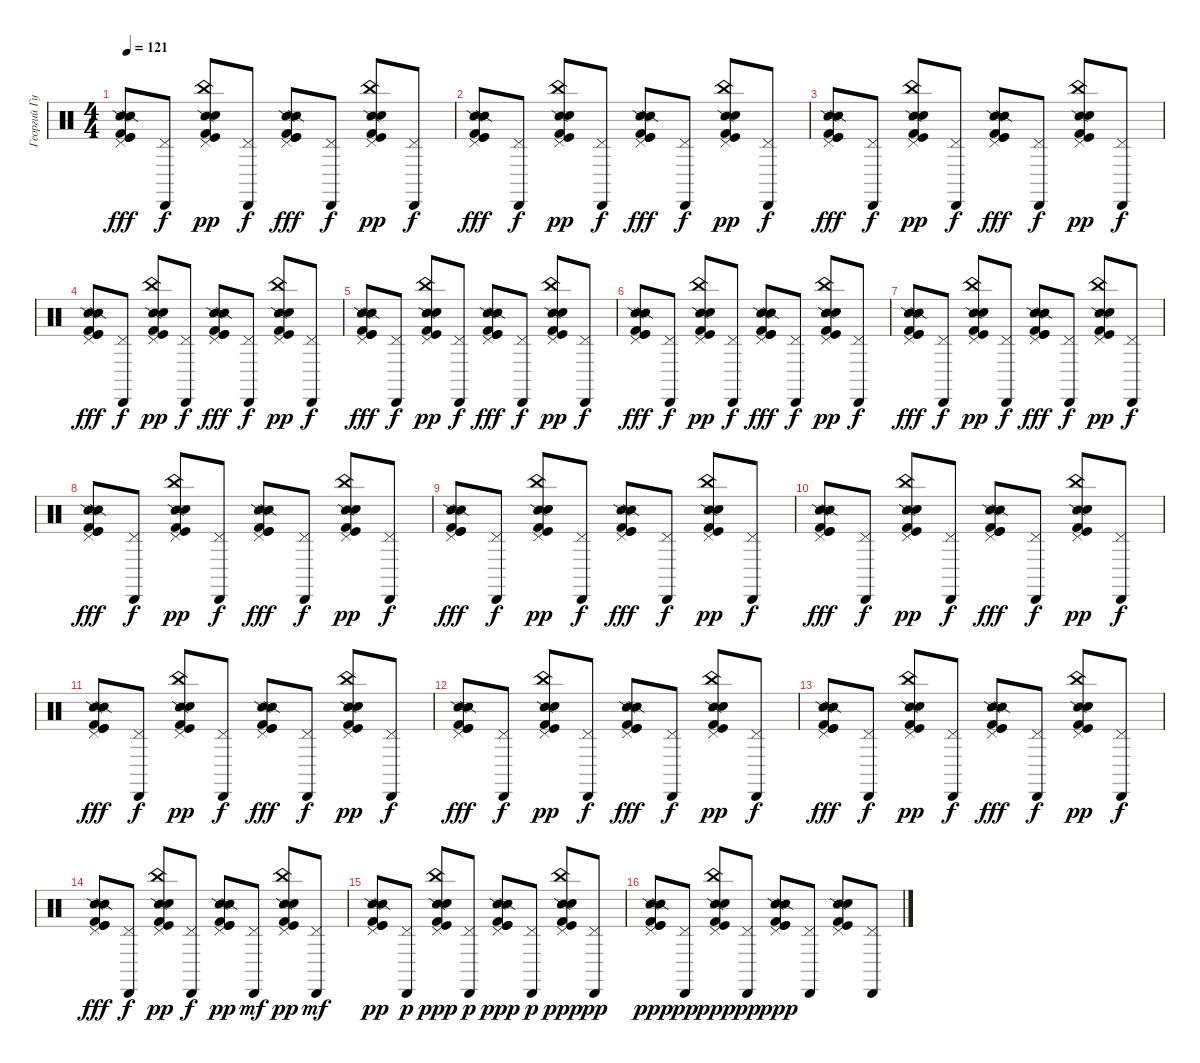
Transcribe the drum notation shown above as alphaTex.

\track ("Георгий Гурьянов" "Георгий Гу") {instrument percussion}
\staff {score}
\articulation defaults
\ts (4 4)
\tempo 121
\clef neutral
\ks c
("Kick (hit)" "Kick (hit) 2" "Pedal Hi-Hat (hit)" "Snare (side stick) 2" "Snare (side stick) 2" "Kick (hit)").8{dy fff} ("Cabasa (hit)" "Pedal Hi-Hat (hit)").8{dy f} ("Kick (hit)" "Kick (hit) 2" "Pedal Hi-Hat (hit)" "Snare (side stick) 2" "Hand Clap (hit)" "China (hit)").8{dy pp} ("Cabasa (hit)" "Pedal Hi-Hat (hit)").8{dy f} ("Kick (hit)" "Kick (hit) 2" "Pedal Hi-Hat (hit)" "Snare (side stick) 2" "Snare (side stick) 2" "Kick (hit)").8{dy fff} ("Cabasa (hit)" "Pedal Hi-Hat (hit)").8{dy f} ("Kick (hit)" "Kick (hit) 2" "Pedal Hi-Hat (hit)" "Snare (side stick) 2" "Hand Clap (hit)" "China (hit)").8{dy pp} ("Cabasa (hit)" "Pedal Hi-Hat (hit)").8{dy f} |
("Kick (hit)" "Kick (hit) 2" "Pedal Hi-Hat (hit)" "Snare (side stick) 2" "Snare (side stick) 2" "Kick (hit)").8{dy fff} ("Cabasa (hit)" "Pedal Hi-Hat (hit)").8{dy f} ("Kick (hit)" "Kick (hit) 2" "Pedal Hi-Hat (hit)" "Snare (side stick) 2" "Hand Clap (hit)" "China (hit)").8{dy pp} ("Cabasa (hit)" "Pedal Hi-Hat (hit)").8{dy f} ("Kick (hit)" "Kick (hit) 2" "Pedal Hi-Hat (hit)" "Snare (side stick) 2" "Snare (side stick) 2" "Kick (hit)").8{dy fff} ("Cabasa (hit)" "Pedal Hi-Hat (hit)").8{dy f} ("Kick (hit)" "Kick (hit) 2" "Pedal Hi-Hat (hit)" "Snare (side stick) 2" "Hand Clap (hit)" "China (hit)").8{dy pp} ("Cabasa (hit)" "Pedal Hi-Hat (hit)").8{dy f} |
("Kick (hit)" "Kick (hit) 2" "Pedal Hi-Hat (hit)" "Snare (side stick) 2" "Snare (side stick) 2" "Kick (hit)").8{dy fff} ("Cabasa (hit)" "Pedal Hi-Hat (hit)").8{dy f} ("Kick (hit)" "Kick (hit) 2" "Pedal Hi-Hat (hit)" "Snare (side stick) 2" "Hand Clap (hit)" "China (hit)").8{dy pp} ("Cabasa (hit)" "Pedal Hi-Hat (hit)").8{dy f} ("Kick (hit)" "Kick (hit) 2" "Pedal Hi-Hat (hit)" "Snare (side stick) 2" "Snare (side stick) 2" "Kick (hit)").8{dy fff} ("Cabasa (hit)" "Pedal Hi-Hat (hit)").8{dy f} ("Kick (hit)" "Kick (hit) 2" "Pedal Hi-Hat (hit)" "Snare (side stick) 2" "Hand Clap (hit)" "China (hit)").8{dy pp} ("Cabasa (hit)" "Pedal Hi-Hat (hit)").8{dy f} |
("Kick (hit)" "Kick (hit) 2" "Pedal Hi-Hat (hit)" "Snare (side stick) 2" "Snare (side stick) 2" "Kick (hit)").8{dy fff} ("Cabasa (hit)" "Pedal Hi-Hat (hit)").8{dy f} ("Kick (hit)" "Kick (hit) 2" "Pedal Hi-Hat (hit)" "Snare (side stick) 2" "Hand Clap (hit)" "China (hit)").8{dy pp} ("Cabasa (hit)" "Pedal Hi-Hat (hit)").8{dy f} ("Kick (hit)" "Kick (hit) 2" "Pedal Hi-Hat (hit)" "Snare (side stick) 2" "Snare (side stick) 2" "Kick (hit)").8{dy fff} ("Cabasa (hit)" "Pedal Hi-Hat (hit)").8{dy f} ("Kick (hit)" "Kick (hit) 2" "Pedal Hi-Hat (hit)" "Snare (side stick) 2" "Hand Clap (hit)" "China (hit)").8{dy pp} ("Cabasa (hit)" "Pedal Hi-Hat (hit)").8{dy f} |
("Kick (hit)" "Kick (hit) 2" "Pedal Hi-Hat (hit)" "Snare (side stick) 2" "Snare (side stick) 2" "Kick (hit)").8{dy fff} ("Cabasa (hit)" "Pedal Hi-Hat (hit)").8{dy f} ("Kick (hit)" "Kick (hit) 2" "Pedal Hi-Hat (hit)" "Snare (side stick) 2" "Hand Clap (hit)" "China (hit)").8{dy pp} ("Cabasa (hit)" "Pedal Hi-Hat (hit)").8{dy f} ("Kick (hit)" "Kick (hit) 2" "Pedal Hi-Hat (hit)" "Snare (side stick) 2" "Snare (side stick) 2" "Kick (hit)").8{dy fff} ("Cabasa (hit)" "Pedal Hi-Hat (hit)").8{dy f} ("Kick (hit)" "Kick (hit) 2" "Pedal Hi-Hat (hit)" "Snare (side stick) 2" "Hand Clap (hit)" "China (hit)").8{dy pp} ("Cabasa (hit)" "Pedal Hi-Hat (hit)").8{dy f} |
("Kick (hit)" "Kick (hit) 2" "Pedal Hi-Hat (hit)" "Snare (side stick) 2" "Snare (side stick) 2" "Kick (hit)").8{dy fff} ("Cabasa (hit)" "Pedal Hi-Hat (hit)").8{dy f} ("Kick (hit)" "Kick (hit) 2" "Pedal Hi-Hat (hit)" "Snare (side stick) 2" "Hand Clap (hit)" "China (hit)").8{dy pp} ("Cabasa (hit)" "Pedal Hi-Hat (hit)").8{dy f} ("Kick (hit)" "Kick (hit) 2" "Pedal Hi-Hat (hit)" "Snare (side stick) 2" "Snare (side stick) 2" "Kick (hit)").8{dy fff} ("Cabasa (hit)" "Pedal Hi-Hat (hit)").8{dy f} ("Kick (hit)" "Kick (hit) 2" "Pedal Hi-Hat (hit)" "Snare (side stick) 2" "Hand Clap (hit)" "China (hit)").8{dy pp} ("Cabasa (hit)" "Pedal Hi-Hat (hit)").8{dy f} |
("Kick (hit)" "Kick (hit) 2" "Pedal Hi-Hat (hit)" "Snare (side stick) 2" "Snare (side stick) 2" "Kick (hit)").8{dy fff} ("Cabasa (hit)" "Pedal Hi-Hat (hit)").8{dy f} ("Kick (hit)" "Kick (hit) 2" "Pedal Hi-Hat (hit)" "Snare (side stick) 2" "Hand Clap (hit)" "China (hit)").8{dy pp} ("Cabasa (hit)" "Pedal Hi-Hat (hit)").8{dy f} ("Kick (hit)" "Kick (hit) 2" "Pedal Hi-Hat (hit)" "Snare (side stick) 2" "Snare (side stick) 2" "Kick (hit)").8{dy fff} ("Cabasa (hit)" "Pedal Hi-Hat (hit)").8{dy f} ("Kick (hit)" "Kick (hit) 2" "Pedal Hi-Hat (hit)" "Snare (side stick) 2" "Hand Clap (hit)" "China (hit)").8{dy pp} ("Cabasa (hit)" "Pedal Hi-Hat (hit)").8{dy f} |
("Kick (hit)" "Kick (hit) 2" "Pedal Hi-Hat (hit)" "Snare (side stick) 2" "Snare (side stick) 2" "Kick (hit)").8{dy fff} ("Cabasa (hit)" "Pedal Hi-Hat (hit)").8{dy f} ("Kick (hit)" "Kick (hit) 2" "Pedal Hi-Hat (hit)" "Snare (side stick) 2" "Hand Clap (hit)" "China (hit)").8{dy pp} ("Cabasa (hit)" "Pedal Hi-Hat (hit)").8{dy f} ("Kick (hit)" "Kick (hit) 2" "Pedal Hi-Hat (hit)" "Snare (side stick) 2" "Snare (side stick) 2" "Kick (hit)").8{dy fff} ("Cabasa (hit)" "Pedal Hi-Hat (hit)").8{dy f} ("Kick (hit)" "Kick (hit) 2" "Pedal Hi-Hat (hit)" "Snare (side stick) 2" "Hand Clap (hit)" "China (hit)").8{dy pp} ("Cabasa (hit)" "Pedal Hi-Hat (hit)").8{dy f} |
("Kick (hit)" "Kick (hit) 2" "Pedal Hi-Hat (hit)" "Snare (side stick) 2" "Snare (side stick) 2" "Kick (hit)").8{dy fff} ("Cabasa (hit)" "Pedal Hi-Hat (hit)").8{dy f} ("Kick (hit)" "Kick (hit) 2" "Pedal Hi-Hat (hit)" "Snare (side stick) 2" "Hand Clap (hit)" "China (hit)").8{dy pp} ("Cabasa (hit)" "Pedal Hi-Hat (hit)").8{dy f} ("Kick (hit)" "Kick (hit) 2" "Pedal Hi-Hat (hit)" "Snare (side stick) 2" "Snare (side stick) 2" "Kick (hit)").8{dy fff} ("Cabasa (hit)" "Pedal Hi-Hat (hit)").8{dy f} ("Kick (hit)" "Kick (hit) 2" "Pedal Hi-Hat (hit)" "Snare (side stick) 2" "Hand Clap (hit)" "China (hit)").8{dy pp} ("Cabasa (hit)" "Pedal Hi-Hat (hit)").8{dy f} |
("Kick (hit)" "Kick (hit) 2" "Pedal Hi-Hat (hit)" "Snare (side stick) 2" "Snare (side stick) 2" "Kick (hit)").8{dy fff} ("Cabasa (hit)" "Pedal Hi-Hat (hit)").8{dy f} ("Kick (hit)" "Kick (hit) 2" "Pedal Hi-Hat (hit)" "Snare (side stick) 2" "Hand Clap (hit)" "China (hit)").8{dy pp} ("Cabasa (hit)" "Pedal Hi-Hat (hit)").8{dy f} ("Kick (hit)" "Kick (hit) 2" "Pedal Hi-Hat (hit)" "Snare (side stick) 2" "Snare (side stick) 2" "Kick (hit)").8{dy fff} ("Cabasa (hit)" "Pedal Hi-Hat (hit)").8{dy f} ("Kick (hit)" "Kick (hit) 2" "Pedal Hi-Hat (hit)" "Snare (side stick) 2" "Hand Clap (hit)" "China (hit)").8{dy pp} ("Cabasa (hit)" "Pedal Hi-Hat (hit)").8{dy f} |
("Kick (hit)" "Kick (hit) 2" "Pedal Hi-Hat (hit)" "Snare (side stick) 2" "Snare (side stick) 2" "Kick (hit)").8{dy fff} ("Cabasa (hit)" "Pedal Hi-Hat (hit)").8{dy f} ("Kick (hit)" "Kick (hit) 2" "Pedal Hi-Hat (hit)" "Snare (side stick) 2" "Hand Clap (hit)" "China (hit)").8{dy pp} ("Cabasa (hit)" "Pedal Hi-Hat (hit)").8{dy f} ("Kick (hit)" "Kick (hit) 2" "Pedal Hi-Hat (hit)" "Snare (side stick) 2" "Snare (side stick) 2" "Kick (hit)").8{dy fff} ("Cabasa (hit)" "Pedal Hi-Hat (hit)").8{dy f} ("Kick (hit)" "Kick (hit) 2" "Pedal Hi-Hat (hit)" "Snare (side stick) 2" "Hand Clap (hit)" "China (hit)").8{dy pp} ("Cabasa (hit)" "Pedal Hi-Hat (hit)").8{dy f} |
("Kick (hit)" "Kick (hit) 2" "Pedal Hi-Hat (hit)" "Snare (side stick) 2" "Snare (side stick) 2" "Kick (hit)").8{dy fff} ("Cabasa (hit)" "Pedal Hi-Hat (hit)").8{dy f} ("Kick (hit)" "Kick (hit) 2" "Pedal Hi-Hat (hit)" "Snare (side stick) 2" "Hand Clap (hit)" "China (hit)").8{dy pp} ("Cabasa (hit)" "Pedal Hi-Hat (hit)").8{dy f} ("Kick (hit)" "Kick (hit) 2" "Pedal Hi-Hat (hit)" "Snare (side stick) 2" "Snare (side stick) 2" "Kick (hit)").8{dy fff} ("Cabasa (hit)" "Pedal Hi-Hat (hit)").8{dy f} ("Kick (hit)" "Kick (hit) 2" "Pedal Hi-Hat (hit)" "Snare (side stick) 2" "Hand Clap (hit)" "China (hit)").8{dy pp} ("Cabasa (hit)" "Pedal Hi-Hat (hit)").8{dy f} |
("Kick (hit)" "Kick (hit) 2" "Pedal Hi-Hat (hit)" "Snare (side stick) 2" "Snare (side stick) 2" "Kick (hit)").8{dy fff} ("Cabasa (hit)" "Pedal Hi-Hat (hit)").8{dy f} ("Kick (hit)" "Kick (hit) 2" "Pedal Hi-Hat (hit)" "Snare (side stick) 2" "Hand Clap (hit)" "China (hit)").8{dy pp} ("Cabasa (hit)" "Pedal Hi-Hat (hit)").8{dy f} ("Kick (hit)" "Kick (hit) 2" "Pedal Hi-Hat (hit)" "Snare (side stick) 2" "Snare (side stick) 2" "Kick (hit)").8{dy fff} ("Cabasa (hit)" "Pedal Hi-Hat (hit)").8{dy f} ("Kick (hit)" "Kick (hit) 2" "Pedal Hi-Hat (hit)" "Snare (side stick) 2" "Hand Clap (hit)" "China (hit)").8{dy pp} ("Cabasa (hit)" "Pedal Hi-Hat (hit)").8{dy f} |
("Kick (hit)" "Kick (hit) 2" "Pedal Hi-Hat (hit)" "Snare (side stick) 2" "Snare (side stick) 2" "Kick (hit)").8{dy fff} ("Cabasa (hit)" "Pedal Hi-Hat (hit)").8{dy f} ("Kick (hit)" "Kick (hit) 2" "Pedal Hi-Hat (hit)" "Snare (side stick) 2" "Hand Clap (hit)" "China (hit)").8{dy pp} ("Cabasa (hit)" "Pedal Hi-Hat (hit)").8{dy f} ("Kick (hit)" "Kick (hit) 2" "Pedal Hi-Hat (hit)" "Snare (side stick) 2" "Snare (side stick) 2" "Kick (hit)").8{dy pp} ("Cabasa (hit)" "Pedal Hi-Hat (hit)").8{dy mf} ("Kick (hit)" "Kick (hit) 2" "Pedal Hi-Hat (hit)" "Snare (side stick) 2" "Hand Clap (hit)" "China (hit)").8{dy pp} ("Cabasa (hit)" "Pedal Hi-Hat (hit)").8{dy mf} |
("Kick (hit)" "Kick (hit) 2" "Pedal Hi-Hat (hit)" "Snare (side stick) 2" "Snare (side stick) 2" "Kick (hit)").8{dy pp} ("Cabasa (hit)" "Pedal Hi-Hat (hit)").8{dy p} ("Kick (hit)" "Kick (hit) 2" "Pedal Hi-Hat (hit)" "Snare (side stick) 2" "Hand Clap (hit)" "China (hit)").8{dy ppp} ("Cabasa (hit)" "Pedal Hi-Hat (hit)").8{dy p} ("Kick (hit)" "Kick (hit) 2" "Pedal Hi-Hat (hit)" "Snare (side stick) 2" "Snare (side stick) 2" "Kick (hit)").8{dy ppp} ("Cabasa (hit)" "Pedal Hi-Hat (hit)").8{dy p} ("Kick (hit)" "Kick (hit) 2" "Pedal Hi-Hat (hit)" "Snare (side stick) 2" "Hand Clap (hit)" "China (hit)").8{dy ppp} ("Cabasa (hit)" "Pedal Hi-Hat (hit)").8{dy pp} |
("Kick (hit)" "Kick (hit) 2" "Pedal Hi-Hat (hit)" "Snare (side stick) 2" "Snare (side stick) 2" "Kick (hit)").8{dy ppp} ("Cabasa (hit)" "Pedal Hi-Hat (hit)").8{dy pp} ("Kick (hit)" "Kick (hit) 2" "Pedal Hi-Hat (hit)" "Snare (side stick) 2" "Hand Clap (hit)" "China (hit)").8{dy ppp} ("Cabasa (hit)" "Pedal Hi-Hat (hit)").8{dy pp} ("Kick (hit)" "Kick (hit) 2" "Pedal Hi-Hat (hit)" "Snare (side stick) 2" "Snare (side stick) 2" "Kick (hit)").8{dy ppp} ("Cabasa (hit)" "Pedal Hi-Hat (hit)").8 ("Kick (hit)" "Kick (hit) 2" "Pedal Hi-Hat (hit)" "Snare (side stick) 2" "Hand Clap (hit)").8 ("Cabasa (hit)" "Pedal Hi-Hat (hit)").8
